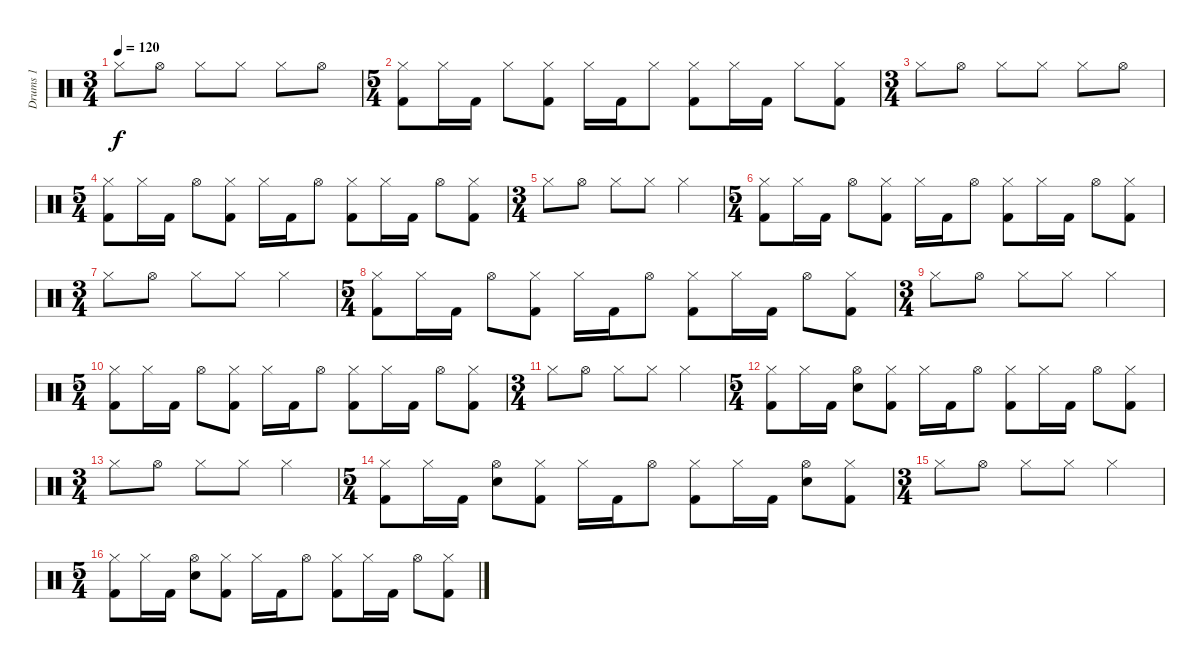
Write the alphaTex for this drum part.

\track ("Drums 1" "Drums 1") {instrument percussion}
\staff {score}
\articulation defaults
\ts (3 4)
\tempo 120
\clef neutral
\ks c "Hi-Hat (closed)".8{dy f} "Hi-Hat (open)".8 "Hi-Hat (closed)".8 "Hi-Hat (closed)".8 "Hi-Hat (closed)".8 "Hi-Hat (open)".8
|
\ts (5 4)
("Hi-Hat (closed)" "Kick (hit) 2").8 "Hi-Hat (closed)".16 "Kick (hit) 2".16 "Hi-Hat (closed)".8 ("Hi-Hat (closed)" "Kick (hit) 2").8 "Hi-Hat (closed)".16 "Kick (hit) 2".16 "Hi-Hat (closed)".8 ("Hi-Hat (closed)" "Kick (hit) 2").8 "Hi-Hat (closed)".16 "Kick (hit) 2".16 "Hi-Hat (closed)".8 ("Hi-Hat (closed)" "Kick (hit) 2").8 |
\ts (3 4)
"Hi-Hat (closed)".8 "Hi-Hat (open)".8 "Hi-Hat (closed)".8 "Hi-Hat (closed)".8 "Hi-Hat (closed)".8 "Hi-Hat (open)".8 |
\ts (5 4)
("Hi-Hat (closed)" "Kick (hit) 2").8 "Hi-Hat (closed)".16 "Kick (hit) 2".16 "Hi-Hat (open)".8 ("Hi-Hat (closed)" "Kick (hit) 2").8 "Hi-Hat (closed)".16 "Kick (hit) 2".16 "Hi-Hat (open)".8 ("Hi-Hat (closed)" "Kick (hit) 2").8 "Hi-Hat (closed)".16 "Kick (hit) 2".16 "Hi-Hat (open)".8 ("Hi-Hat (closed)" "Kick (hit) 2").8 |
\ts (3 4)
"Hi-Hat (closed)".8 "Hi-Hat (open)".8 "Hi-Hat (closed)".8 "Hi-Hat (closed)".8 "Hi-Hat (closed)".4 |
\ts (5 4)
("Hi-Hat (closed)" "Kick (hit) 2").8 "Hi-Hat (closed)".16 "Kick (hit) 2".16 "Hi-Hat (open)".8 ("Hi-Hat (closed)" "Kick (hit) 2").8 "Hi-Hat (closed)".16 "Kick (hit) 2".16 "Hi-Hat (open)".8 ("Hi-Hat (closed)" "Kick (hit) 2").8 "Hi-Hat (closed)".16 "Kick (hit) 2".16 "Hi-Hat (open)".8 ("Hi-Hat (closed)" "Kick (hit) 2").8 |
\ts (3 4)
"Hi-Hat (closed)".8 "Hi-Hat (open)".8 "Hi-Hat (closed)".8 "Hi-Hat (closed)".8 "Hi-Hat (closed)".4 |
\ts (5 4)
("Hi-Hat (closed)" "Kick (hit) 2").8 "Hi-Hat (closed)".16 "Kick (hit) 2".16 "Hi-Hat (open)".8 ("Hi-Hat (closed)" "Kick (hit) 2").8 "Hi-Hat (closed)".16 "Kick (hit) 2".16 "Hi-Hat (open)".8 ("Hi-Hat (closed)" "Kick (hit) 2").8 "Hi-Hat (closed)".16 "Kick (hit) 2".16 "Hi-Hat (open)".8 ("Hi-Hat (closed)" "Kick (hit) 2").8 |
\ts (3 4)
"Hi-Hat (closed)".8 "Hi-Hat (open)".8 "Hi-Hat (closed)".8 "Hi-Hat (closed)".8 "Hi-Hat (closed)".4 |
\ts (5 4)
("Hi-Hat (closed)" "Kick (hit) 2").8 "Hi-Hat (closed)".16 "Kick (hit) 2".16 "Hi-Hat (open)".8 ("Hi-Hat (closed)" "Kick (hit) 2").8 "Hi-Hat (closed)".16 "Kick (hit) 2".16 "Hi-Hat (open)".8 ("Hi-Hat (closed)" "Kick (hit) 2").8 "Hi-Hat (closed)".16 "Kick (hit) 2".16 "Hi-Hat (open)".8 ("Hi-Hat (closed)" "Kick (hit) 2").8 |
\ts (3 4)
"Hi-Hat (closed)".8 "Hi-Hat (open)".8 "Hi-Hat (closed)".8 "Hi-Hat (closed)".8 "Hi-Hat (closed)".4 |
\ts (5 4)
("Hi-Hat (closed)" "Kick (hit) 2").8 "Hi-Hat (closed)".16 "Kick (hit) 2".16 ("Snare (hit) 2" "Hi-Hat (open)").8 ("Hi-Hat (closed)" "Kick (hit) 2").8 "Hi-Hat (closed)".16 "Kick (hit) 2".16 "Hi-Hat (open)".8 ("Hi-Hat (closed)" "Kick (hit) 2").8 "Hi-Hat (closed)".16 "Kick (hit) 2".16 "Hi-Hat (open)".8 ("Hi-Hat (closed)" "Kick (hit) 2").8 |
\ts (3 4)
"Hi-Hat (closed)".8 "Hi-Hat (open)".8 "Hi-Hat (closed)".8 "Hi-Hat (closed)".8 "Hi-Hat (closed)".4 |
\ts (5 4)
("Hi-Hat (closed)" "Kick (hit) 2").8 "Hi-Hat (closed)".16 "Kick (hit) 2".16 ("Snare (hit) 2" "Hi-Hat (open)").8 ("Hi-Hat (closed)" "Kick (hit) 2").8 "Hi-Hat (closed)".16 "Kick (hit) 2".16 "Hi-Hat (open)".8 ("Hi-Hat (closed)" "Kick (hit) 2").8 "Hi-Hat (closed)".16 "Kick (hit) 2".16 ("Snare (hit) 2" "Hi-Hat (open)").8 ("Hi-Hat (closed)" "Kick (hit) 2").8 |
\ts (3 4)
"Hi-Hat (closed)".8 "Hi-Hat (open)".8 "Hi-Hat (closed)".8 "Hi-Hat (closed)".8 "Hi-Hat (closed)".4 |
\ts (5 4)
("Hi-Hat (closed)" "Kick (hit) 2").8 "Hi-Hat (closed)".16 "Kick (hit) 2".16 ("Snare (hit) 2" "Hi-Hat (open)").8 ("Hi-Hat (closed)" "Kick (hit) 2").8 "Hi-Hat (closed)".16 "Kick (hit) 2".16 "Hi-Hat (open)".8 ("Hi-Hat (closed)" "Kick (hit) 2").8 "Hi-Hat (closed)".16 "Kick (hit) 2".16 "Hi-Hat (open)".8 ("Hi-Hat (closed)" "Kick (hit) 2").8
